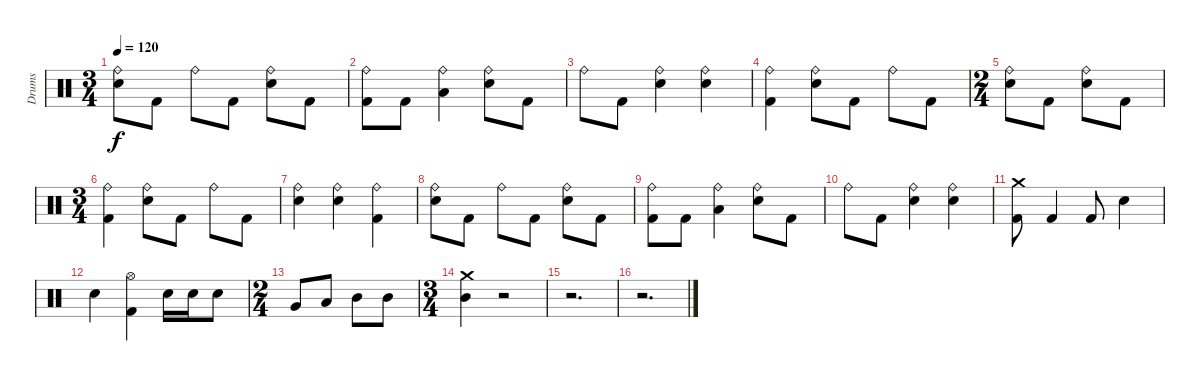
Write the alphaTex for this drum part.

\track ("Drums" "Drums") {instrument percussion}
\staff {score}
\articulation defaults
\ts (3 4)
\tempo 120
\clef neutral
\ks c
("Electric Snare (hit)" "Ride (bell)").8{dy f} "Kick (hit) 2".8 "Ride (bell)".8 "Kick (hit) 2".8 ("Electric Snare (hit)" "Ride (bell)").8 "Kick (hit) 2".8 |
("Ride (bell)" "Kick (hit) 2").8 "Kick (hit) 2".8 ("Ride (bell)" "Low Tom (hit)").4 ("Electric Snare (hit)" "Ride (bell)").8 "Kick (hit) 2".8 |
"Ride (bell)".8 "Kick (hit) 2".8 ("Electric Snare (hit)" "Ride (bell)").4 ("Electric Snare (hit)" "Ride (bell)").4 |
("Ride (bell)" "Kick (hit) 2").4 ("Electric Snare (hit)" "Ride (bell)").8 "Kick (hit) 2".8 "Ride (bell)".8 "Kick (hit) 2".8 |
\ts (2 4)
("Electric Snare (hit)" "Ride (bell)").8 "Kick (hit) 2".8 ("Electric Snare (hit)" "Ride (bell)").8 "Kick (hit) 2".8 |
\ts (3 4)
("Ride (bell)" "Kick (hit) 2").4 ("Electric Snare (hit)" "Ride (bell)").8 "Kick (hit) 2".8 "Ride (bell)".8 "Kick (hit) 2".8 |
("Electric Snare (hit)" "Ride (bell)").4 ("Electric Snare (hit)" "Ride (bell)").4 ("Ride (bell)" "Kick (hit) 2").4 |
("Electric Snare (hit)" "Ride (bell)").8 "Kick (hit) 2".8 "Ride (bell)".8 "Kick (hit) 2".8 ("Electric Snare (hit)" "Ride (bell)").8 "Kick (hit) 2".8 |
("Ride (bell)" "Kick (hit) 2").8 "Kick (hit) 2".8 ("Ride (bell)" "Low Tom (hit)").4 ("Electric Snare (hit)" "Ride (bell)").8 "Kick (hit) 2".8 |
"Ride (bell)".8 "Kick (hit) 2".8 ("Electric Snare (hit)" "Ride (bell)").4 ("Electric Snare (hit)" "Ride (bell)").4 |
("Crash medium (hit)" "Kick (hit) 2").8 "Kick (hit) 2".4 "Kick (hit) 2".8 "Electric Snare (hit)".4 |
"Electric Snare (hit)".4 ("Hi-Hat (open)" "Kick (hit) 2").4 "Electric Snare (hit)".16 "Electric Snare (hit)".16 "Electric Snare (hit)".8 |
\ts (2 4)
"Very Low Tom (hit)".8 "Low Tom (hit)".8 "Mid Tom (hit)".8 "Mid Tom (hit)".8 |
\ts (3 4)
("Crash medium (hit)" "Mid Tom (hit)").4 r.2 |
r.2{d} |
r.2{d}
